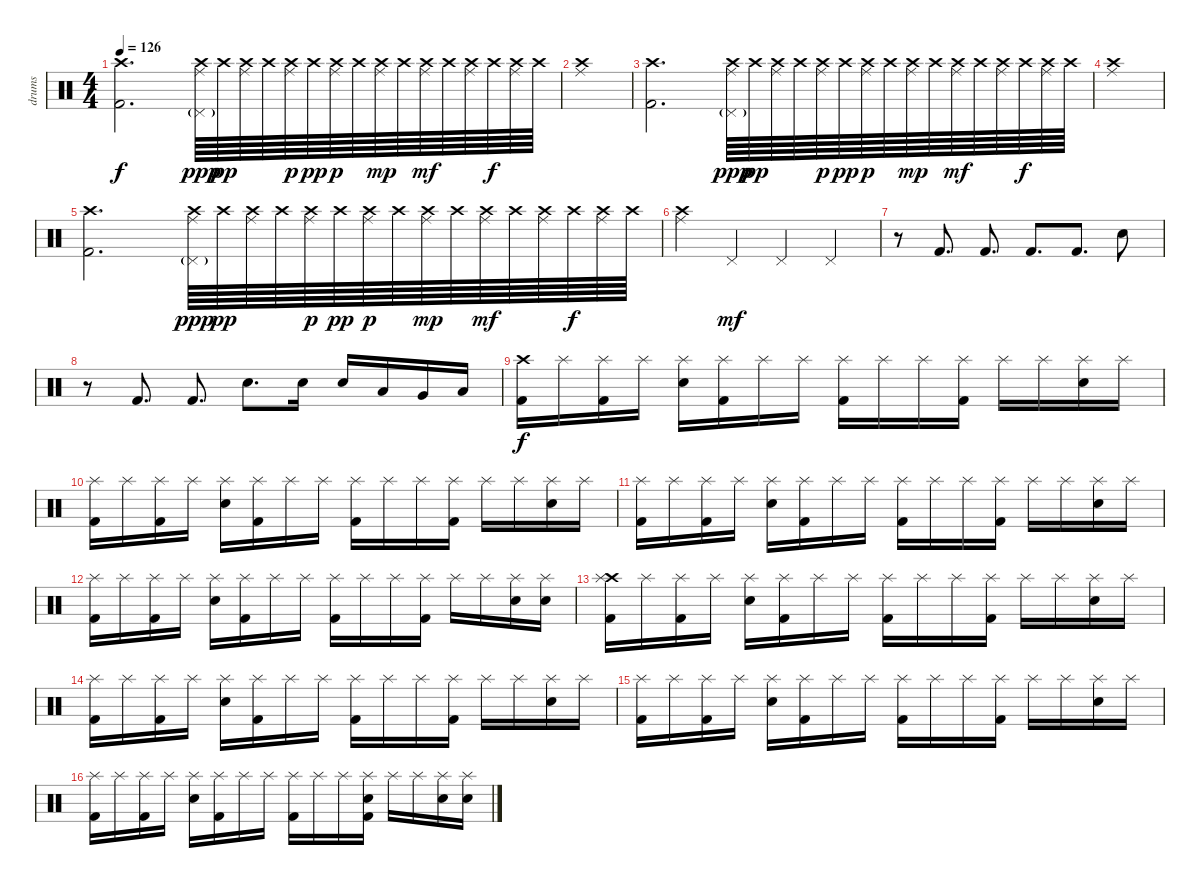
\track ("drums" "drums") {instrument percussion}
\staff {score}
\articulation defaults
\ts (4 4)
\tempo 126
\clef neutral
\ks c
("Crash high (hit)" "Kick (hit) 2").2{d dy f} ("Pedal Hi-Hat (hit)"{g} "Crash high (hit)" "Ride (middle)").64{dy ppp} "Crash high (hit)".64{dy pp} ("Crash high (hit)" "Ride (middle)").64 "Crash high (hit)".64 ("Crash high (hit)" "Ride (middle)").64{dy p} "Crash high (hit)".64{dy pp} ("Crash high (hit)" "Ride (middle)").64{dy p} "Crash high (hit)".64 ("Crash high (hit)" "Ride (middle)").64{dy mp} "Crash high (hit)".64 ("Crash high (hit)" "Ride (middle)").64{dy mf} "Crash high (hit)".64 ("Crash high (hit)" "Ride (middle)").64 "Crash high (hit)".64{dy f} ("Crash high (hit)" "Ride (middle)").64 "Crash high (hit)".64 |
("Crash high (hit)" "Ride (middle)").1 |
("Crash high (hit)" "Kick (hit) 2").2{d} ("Pedal Hi-Hat (hit)"{g} "Crash high (hit)" "Ride (middle)").64{dy ppp} "Crash high (hit)".64{dy pp} ("Crash high (hit)" "Ride (middle)").64 "Crash high (hit)".64 ("Crash high (hit)" "Ride (middle)").64{dy p} "Crash high (hit)".64{dy pp} ("Crash high (hit)" "Ride (middle)").64{dy p} "Crash high (hit)".64 ("Crash high (hit)" "Ride (middle)").64{dy mp} "Crash high (hit)".64 ("Crash high (hit)" "Ride (middle)").64{dy mf} "Crash high (hit)".64 ("Crash high (hit)" "Ride (middle)").64 "Crash high (hit)".64{dy f} ("Crash high (hit)" "Ride (middle)").64 "Crash high (hit)".64 |
("Crash high (hit)" "Ride (middle)").1 |
("Crash high (hit)" "Kick (hit) 2").2{d} ("Pedal Hi-Hat (hit)"{g} "Crash high (hit)" "Ride (middle)").64{dy ppp} "Crash high (hit)".64{dy pp} ("Crash high (hit)" "Ride (middle)").64 "Crash high (hit)".64 ("Crash high (hit)" "Ride (middle)").64{dy p} "Crash high (hit)".64{dy pp} ("Crash high (hit)" "Ride (middle)").64{dy p} "Crash high (hit)".64 ("Crash high (hit)" "Ride (middle)").64{dy mp} "Crash high (hit)".64 ("Crash high (hit)" "Ride (middle)").64{dy mf} "Crash high (hit)".64 ("Crash high (hit)" "Ride (middle)").64 "Crash high (hit)".64{dy f} ("Crash high (hit)" "Ride (middle)").64 "Crash high (hit)".64 |
("Crash high (hit)" "Ride (middle)").4 "Pedal Hi-Hat (hit)".4{dy mf} "Pedal Hi-Hat (hit)".4 "Pedal Hi-Hat (hit)".4 |
r.8 "Kick (hit) 2".8{d} "Kick (hit) 2".8{d} "Kick (hit) 2".8{d} "Kick (hit) 2".8{d} "Snare (hit) 2".8 |
r.8 "Kick (hit) 2".8{d} "Kick (hit) 2".8{d} "Snare (hit) 2".8{d} "Snare (hit) 2".16 "Snare (hit) 2".16 "Low Tom (hit)".16 "Very Low Tom (hit)".16 "Low Floor Tom (hit)".16 |
("Crash high (hit)" "Kick (hit) 2").16{dy f} "Splash (hit)".16 ("Splash (hit)" "Kick (hit) 2").16 "Splash (hit)".16 ("Splash (hit)" "Snare (hit) 2").16 ("Splash (hit)" "Kick (hit) 2").16 "Splash (hit)".16 "Splash (hit)".16 ("Splash (hit)" "Kick (hit) 2").16 "Splash (hit)".16 "Splash (hit)".16 ("Splash (hit)" "Kick (hit) 2").16 "Splash (hit)".16 "Splash (hit)".16 ("Splash (hit)" "Snare (hit) 2").16 "Splash (hit)".16 |
("Splash (hit)" "Kick (hit) 2").16 "Splash (hit)".16 ("Splash (hit)" "Kick (hit) 2").16 "Splash (hit)".16 ("Splash (hit)" "Snare (hit) 2").16 ("Splash (hit)" "Kick (hit) 2").16 "Splash (hit)".16 "Splash (hit)".16 ("Splash (hit)" "Kick (hit) 2").16 "Splash (hit)".16 "Splash (hit)".16 ("Splash (hit)" "Kick (hit) 2").16 "Splash (hit)".16 "Splash (hit)".16 ("Splash (hit)" "Snare (hit) 2").16 "Splash (hit)".16 |
("Splash (hit)" "Kick (hit) 2").16 "Splash (hit)".16 ("Splash (hit)" "Kick (hit) 2").16 "Splash (hit)".16 ("Splash (hit)" "Snare (hit) 2").16 ("Splash (hit)" "Kick (hit) 2").16 "Splash (hit)".16 "Splash (hit)".16 ("Splash (hit)" "Kick (hit) 2").16 "Splash (hit)".16 "Splash (hit)".16 ("Splash (hit)" "Kick (hit) 2").16 "Splash (hit)".16 "Splash (hit)".16 ("Splash (hit)" "Snare (hit) 2").16 "Splash (hit)".16 |
("Splash (hit)" "Kick (hit) 2").16 "Splash (hit)".16 ("Splash (hit)" "Kick (hit) 2").16 "Splash (hit)".16 ("Splash (hit)" "Snare (hit) 2").16 ("Splash (hit)" "Kick (hit) 2").16 "Splash (hit)".16 "Splash (hit)".16 ("Splash (hit)" "Kick (hit) 2").16 "Splash (hit)".16 "Splash (hit)".16 ("Splash (hit)" "Kick (hit) 2").16 "Splash (hit)".16 "Splash (hit)".16 ("Splash (hit)" "Snare (hit) 2").16 ("Splash (hit)" "Snare (hit) 2").16 |
("Crash high (hit)" "Splash (hit)" "Kick (hit) 2").16 "Splash (hit)".16 ("Splash (hit)" "Kick (hit) 2").16 "Splash (hit)".16 ("Splash (hit)" "Snare (hit) 2").16 ("Splash (hit)" "Kick (hit) 2").16 "Splash (hit)".16 "Splash (hit)".16 ("Splash (hit)" "Kick (hit) 2").16 "Splash (hit)".16 "Splash (hit)".16 ("Splash (hit)" "Kick (hit) 2").16 "Splash (hit)".16 "Splash (hit)".16 ("Splash (hit)" "Snare (hit) 2").16 "Splash (hit)".16 |
("Splash (hit)" "Kick (hit) 2").16 "Splash (hit)".16 ("Splash (hit)" "Kick (hit) 2").16 "Splash (hit)".16 ("Splash (hit)" "Snare (hit) 2").16 ("Splash (hit)" "Kick (hit) 2").16 "Splash (hit)".16 "Splash (hit)".16 ("Splash (hit)" "Kick (hit) 2").16 "Splash (hit)".16 "Splash (hit)".16 ("Splash (hit)" "Kick (hit) 2").16 "Splash (hit)".16 "Splash (hit)".16 ("Splash (hit)" "Snare (hit) 2").16 "Splash (hit)".16 |
("Splash (hit)" "Kick (hit) 2").16 "Splash (hit)".16 ("Splash (hit)" "Kick (hit) 2").16 "Splash (hit)".16 ("Splash (hit)" "Snare (hit) 2").16 ("Splash (hit)" "Kick (hit) 2").16 "Splash (hit)".16 "Splash (hit)".16 ("Splash (hit)" "Kick (hit) 2").16 "Splash (hit)".16 "Splash (hit)".16 ("Splash (hit)" "Kick (hit) 2").16 "Splash (hit)".16 "Splash (hit)".16 ("Splash (hit)" "Snare (hit) 2").16 "Splash (hit)".16 |
("Splash (hit)" "Kick (hit) 2").16 "Splash (hit)".16 ("Splash (hit)" "Kick (hit) 2").16 "Splash (hit)".16 ("Splash (hit)" "Snare (hit) 2").16 ("Splash (hit)" "Kick (hit) 2").16 "Splash (hit)".16 "Splash (hit)".16 ("Splash (hit)" "Kick (hit) 2").16 "Splash (hit)".16 "Splash (hit)".16 ("Splash (hit)" "Kick (hit) 2" "Snare (hit) 2").16 "Splash (hit)".16 "Splash (hit)".16 ("Splash (hit)" "Snare (hit) 2").16 ("Splash (hit)" "Snare (hit) 2").16
